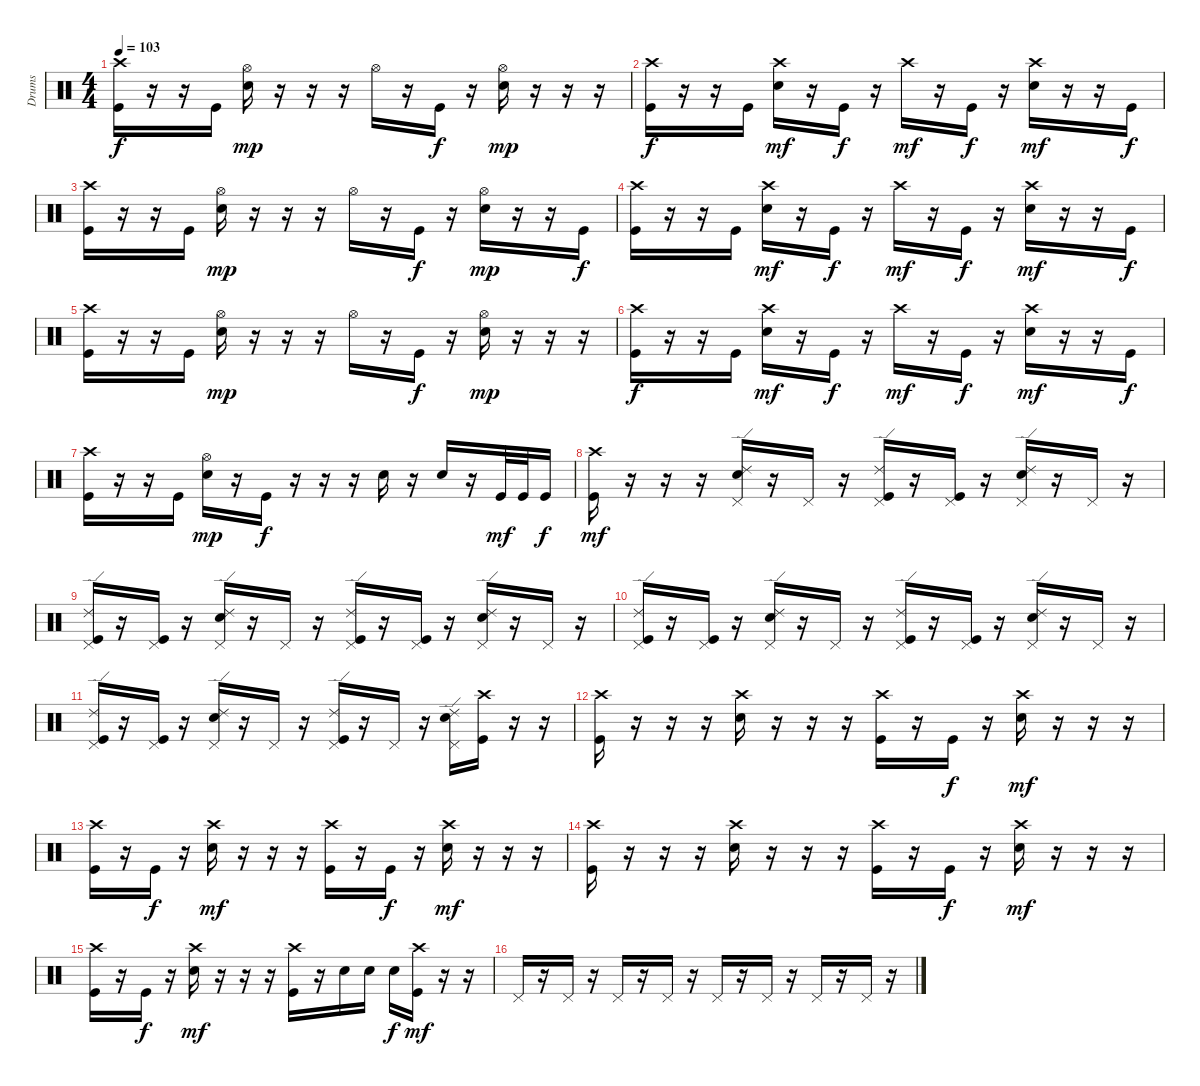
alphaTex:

\track ("Drums" "Drums") {instrument percussion}
\staff {score}
\articulation defaults
\ts (4 4)
\tempo 103
\clef neutral
\ks c
("Crash high (hit)" "Kick (hit)").16{dy f} r.16 r.16 "Kick (hit)".16 ("Hi-Hat (open)" "Snare (hit) 2").16{dy mp} r.16 r.16 r.16 "Hi-Hat (open)".16 r.16 "Kick (hit)".16{dy f} r.16 ("Hi-Hat (open)" "Snare (hit) 2").16{dy mp} r.16 r.16 r.16 |
("Crash high (hit)" "Kick (hit)").16{dy f} r.16 r.16 "Kick (hit)".16 ("Crash high (hit)" "Snare (hit) 2").16{dy mf} r.16 "Kick (hit)".16{dy f} r.16 "Crash high (hit)".16{dy mf} r.16 "Kick (hit)".16{dy f} r.16 ("Crash high (hit)" "Snare (hit) 2").16{dy mf} r.16 r.16 "Kick (hit)".16{dy f} |
("Crash high (hit)" "Kick (hit)").16 r.16 r.16 "Kick (hit)".16 ("Hi-Hat (open)" "Snare (hit) 2").16{dy mp} r.16 r.16 r.16 "Hi-Hat (open)".16 r.16 "Kick (hit)".16{dy f} r.16 ("Hi-Hat (open)" "Snare (hit) 2").16{dy mp} r.16 r.16 "Kick (hit)".16{dy f} |
("Crash high (hit)" "Kick (hit)").16 r.16 r.16 "Kick (hit)".16 ("Crash high (hit)" "Snare (hit) 2").16{dy mf} r.16 "Kick (hit)".16{dy f} r.16 "Crash high (hit)".16{dy mf} r.16 "Kick (hit)".16{dy f} r.16 ("Crash high (hit)" "Snare (hit) 2").16{dy mf} r.16 r.16 "Kick (hit)".16{dy f} |
("Crash high (hit)" "Kick (hit)").16 r.16 r.16 "Kick (hit)".16 ("Hi-Hat (open)" "Snare (hit) 2").16{dy mp} r.16 r.16 r.16 "Hi-Hat (open)".16 r.16 "Kick (hit)".16{dy f} r.16 ("Hi-Hat (open)" "Snare (hit) 2").16{dy mp} r.16 r.16 r.16 |
("Crash high (hit)" "Kick (hit)").16{dy f} r.16 r.16 "Kick (hit)".16 ("Crash high (hit)" "Snare (hit) 2").16{dy mf} r.16 "Kick (hit)".16{dy f} r.16 "Crash high (hit)".16{dy mf} r.16 "Kick (hit)".16{dy f} r.16 ("Crash high (hit)" "Snare (hit) 2").16{dy mf} r.16 r.16 "Kick (hit)".16{dy f} |
("Crash high (hit)" "Kick (hit)").16 r.16 r.16 "Kick (hit)".16 ("Hi-Hat (open)" "Snare (hit) 2").16{dy mp} r.16 "Kick (hit)".16{dy f} r.16 r.16 r.16 "Snare (hit) 2".16 r.16 "Snare (hit) 2".16 r.16 "Kick (hit)".32{dy mf} "Kick (hit)".32 "Kick (hit)".16{dy f} |
("Crash high (hit)" "Kick (hit)").16{dy mf} r.16 r.16 r.16 ("Ride (edge) 2" "Pedal Hi-Hat (hit)" "Snare (hit) 2").16 r.16 "Pedal Hi-Hat (hit)".16 r.16 ("Ride (edge) 2" "Pedal Hi-Hat (hit)" "Kick (hit)").16 r.16 ("Pedal Hi-Hat (hit)" "Kick (hit)").16 r.16 ("Ride (edge) 2" "Pedal Hi-Hat (hit)" "Snare (hit) 2").16 r.16 "Pedal Hi-Hat (hit)".16 r.16 |
("Ride (edge) 2" "Pedal Hi-Hat (hit)" "Kick (hit)").16 r.16 ("Pedal Hi-Hat (hit)" "Kick (hit)").16 r.16 ("Ride (edge) 2" "Pedal Hi-Hat (hit)" "Snare (hit) 2").16 r.16 "Pedal Hi-Hat (hit)".16 r.16 ("Ride (edge) 2" "Pedal Hi-Hat (hit)" "Kick (hit)").16 r.16 ("Pedal Hi-Hat (hit)" "Kick (hit)").16 r.16 ("Ride (edge) 2" "Pedal Hi-Hat (hit)" "Snare (hit) 2").16 r.16 "Pedal Hi-Hat (hit)".16 r.16 |
("Ride (edge) 2" "Pedal Hi-Hat (hit)" "Kick (hit)").16 r.16 ("Pedal Hi-Hat (hit)" "Kick (hit)").16 r.16 ("Ride (edge) 2" "Pedal Hi-Hat (hit)" "Snare (hit) 2").16 r.16 "Pedal Hi-Hat (hit)".16 r.16 ("Ride (edge) 2" "Pedal Hi-Hat (hit)" "Kick (hit)").16 r.16 ("Pedal Hi-Hat (hit)" "Kick (hit)").16 r.16 ("Ride (edge) 2" "Pedal Hi-Hat (hit)" "Snare (hit) 2").16 r.16 "Pedal Hi-Hat (hit)".16 r.16 |
("Ride (edge) 2" "Pedal Hi-Hat (hit)" "Kick (hit)").16 r.16 ("Pedal Hi-Hat (hit)" "Kick (hit)").16 r.16 ("Ride (edge) 2" "Pedal Hi-Hat (hit)" "Snare (hit) 2").16 r.16 "Pedal Hi-Hat (hit)".16 r.16 ("Ride (edge) 2" "Pedal Hi-Hat (hit)" "Kick (hit)").16 r.16 "Pedal Hi-Hat (hit)".16 r.16 ("Ride (edge) 2" "Pedal Hi-Hat (hit)" "Snare (hit) 2").16 ("Crash high (hit)" "Kick (hit)").16 r.16 r.16 |
("Crash high (hit)" "Kick (hit)").16 r.16 r.16 r.16 ("Crash high (hit)" "Snare (hit) 2").16 r.16 r.16 r.16 ("Crash high (hit)" "Kick (hit)").16 r.16 "Kick (hit)".16{dy f} r.16 ("Crash high (hit)" "Snare (hit) 2").16{dy mf} r.16 r.16 r.16 |
("Crash high (hit)" "Kick (hit)").16 r.16 "Kick (hit)".16{dy f} r.16 ("Crash high (hit)" "Snare (hit) 2").16{dy mf} r.16 r.16 r.16 ("Crash high (hit)" "Kick (hit)").16 r.16 "Kick (hit)".16{dy f} r.16 ("Crash high (hit)" "Snare (hit) 2").16{dy mf} r.16 r.16 r.16 |
("Crash high (hit)" "Kick (hit)").16 r.16 r.16 r.16 ("Crash high (hit)" "Snare (hit) 2").16 r.16 r.16 r.16 ("Crash high (hit)" "Kick (hit)").16 r.16 "Kick (hit)".16{dy f} r.16 ("Crash high (hit)" "Snare (hit) 2").16{dy mf} r.16 r.16 r.16 |
("Crash high (hit)" "Kick (hit)").16 r.16 "Kick (hit)".16{dy f} r.16 ("Crash high (hit)" "Snare (hit) 2").16{dy mf} r.16 r.16 r.16 ("Crash high (hit)" "Kick (hit)").16 r.16 "Snare (hit) 2".16 "Snare (hit) 2".16 "Snare (hit) 2".16{dy f} ("Crash high (hit)" "Kick (hit)").16{dy mf} r.16 r.16 |
"Pedal Hi-Hat (hit)".16 r.16 "Pedal Hi-Hat (hit)".16 r.16 "Pedal Hi-Hat (hit)".16 r.16 "Pedal Hi-Hat (hit)".16 r.16 "Pedal Hi-Hat (hit)".16 r.16 "Pedal Hi-Hat (hit)".16 r.16 "Pedal Hi-Hat (hit)".16 r.16 "Pedal Hi-Hat (hit)".16 r.16
